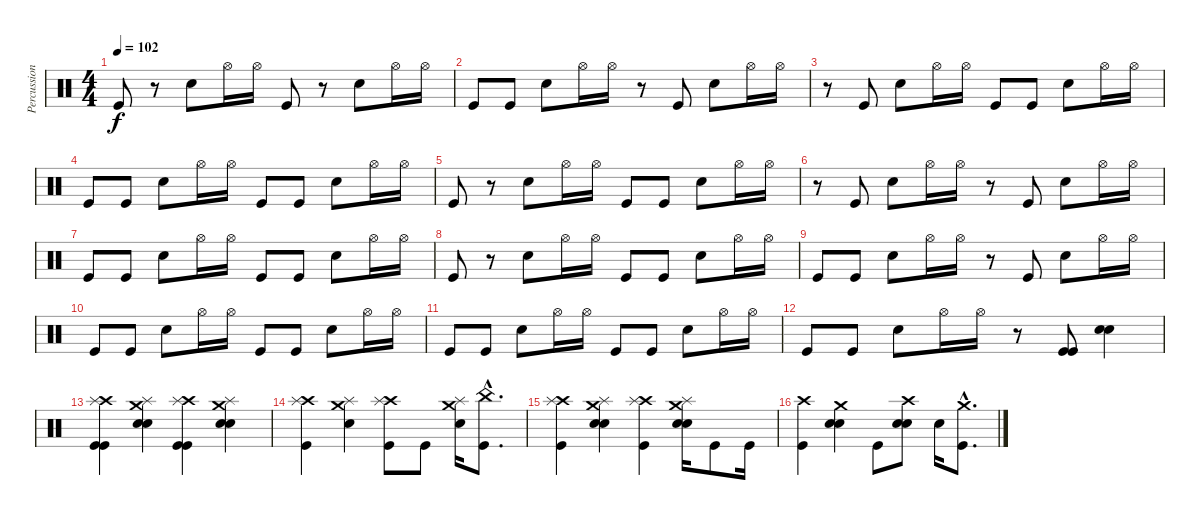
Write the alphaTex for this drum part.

\track ("Percussion (David)" "Percussion") {instrument percussion}
\staff {score}
\articulation defaults
\ts (4 4)
\tempo 102
\clef neutral
\ks c "Kick (hit)".8{dy f}
r.8 "Electric Snare (hit)".8 "Hi-Hat (open)".16 "Hi-Hat (open)".16 "Kick (hit)".8 r.8 "Electric Snare (hit)".8 "Hi-Hat (open)".16 "Hi-Hat (open)".16 |
"Kick (hit)".8 "Kick (hit)".8 "Electric Snare (hit)".8 "Hi-Hat (open)".16 "Hi-Hat (open)".16 r.8 "Kick (hit)".8 "Electric Snare (hit)".8 "Hi-Hat (open)".16 "Hi-Hat (open)".16 |
r.8 "Kick (hit)".8 "Electric Snare (hit)".8 "Hi-Hat (open)".16 "Hi-Hat (open)".16 "Kick (hit)".8 "Kick (hit)".8 "Electric Snare (hit)".8 "Hi-Hat (open)".16 "Hi-Hat (open)".16 |
"Kick (hit)".8 "Kick (hit)".8 "Electric Snare (hit)".8 "Hi-Hat (open)".16 "Hi-Hat (open)".16 "Kick (hit)".8 "Kick (hit)".8 "Electric Snare (hit)".8 "Hi-Hat (open)".16 "Hi-Hat (open)".16 |
"Kick (hit)".8 r.8 "Electric Snare (hit)".8 "Hi-Hat (open)".16 "Hi-Hat (open)".16 "Kick (hit)".8 "Kick (hit)".8 "Electric Snare (hit)".8 "Hi-Hat (open)".16 "Hi-Hat (open)".16 |
r.8 "Kick (hit)".8 "Electric Snare (hit)".8 "Hi-Hat (open)".16 "Hi-Hat (open)".16 r.8 "Kick (hit)".8 "Electric Snare (hit)".8 "Hi-Hat (open)".16 "Hi-Hat (open)".16 |
"Kick (hit)".8 "Kick (hit)".8 "Electric Snare (hit)".8 "Hi-Hat (open)".16 "Hi-Hat (open)".16 "Kick (hit)".8 "Kick (hit)".8 "Electric Snare (hit)".8 "Hi-Hat (open)".16 "Hi-Hat (open)".16 |
"Kick (hit)".8 r.8 "Electric Snare (hit)".8 "Hi-Hat (open)".16 "Hi-Hat (open)".16 "Kick (hit)".8 "Kick (hit)".8 "Electric Snare (hit)".8 "Hi-Hat (open)".16 "Hi-Hat (open)".16 |
"Kick (hit)".8 "Kick (hit)".8 "Electric Snare (hit)".8 "Hi-Hat (open)".16 "Hi-Hat (open)".16 r.8 "Kick (hit)".8 "Electric Snare (hit)".8 "Hi-Hat (open)".16 "Hi-Hat (open)".16 |
"Kick (hit)".8 "Kick (hit)".8 "Electric Snare (hit)".8 "Hi-Hat (open)".16 "Hi-Hat (open)".16 "Kick (hit)".8 "Kick (hit)".8 "Electric Snare (hit)".8 "Hi-Hat (open)".16 "Hi-Hat (open)".16 |
"Kick (hit)".8 "Kick (hit)".8 "Electric Snare (hit)".8 "Hi-Hat (open)".16 "Hi-Hat (open)".16 "Kick (hit)".8 "Kick (hit)".8 "Electric Snare (hit)".8 "Hi-Hat (open)".16 "Hi-Hat (open)".16 |
"Kick (hit)".8 "Kick (hit)".8 "Electric Snare (hit)".8 "Hi-Hat (open)".16 "Hi-Hat (open)".16 r.8 ("Kick (hit)" "Kick (hit)").8 ("Electric Snare (hit)" "Electric Snare (hit)").4 |
("Kick (hit)" "Crash high (hit)" "Splash (hit)" "Kick (hit)").4 ("Electric Snare (hit)" "Crash medium (hit)" "Splash (hit)" "Electric Snare (hit)").4 ("Kick (hit)" "Crash high (hit)" "Splash (hit)" "Kick (hit)").4 ("Electric Snare (hit)" "Crash medium (hit)" "Splash (hit)" "Electric Snare (hit)").4 |
("Kick (hit)" "Crash high (hit)" "Splash (hit)").4 ("Electric Snare (hit)" "Crash medium (hit)" "Splash (hit)").4 ("Kick (hit)" "Crash high (hit)" "Splash (hit)").8 "Kick (hit)".8 ("Electric Snare (hit)" "Crash medium (hit)" "Splash (hit)").16 ("Kick (hit)"{hac} "China (hit)"{hac}).8{d} |
("Kick (hit)" "Crash high (hit)" "Splash (hit)").4 ("Electric Snare (hit)" "Crash medium (hit)" "Splash (hit)" "Electric Snare (hit)").4 ("Kick (hit)" "Crash high (hit)" "Splash (hit)").4 ("Electric Snare (hit)" "Crash medium (hit)" "Splash (hit)" "Electric Snare (hit)").16 "Kick (hit)".8 "Kick (hit)".16 |
("Kick (hit)" "Crash high (hit)").4 ("Electric Snare (hit)" "Crash medium (hit)" "Electric Snare (hit)").4 "Kick (hit)".8 ("Electric Snare (hit)" "Crash high (hit)" "Electric Snare (hit)").8 "Electric Snare (hit)".16 ("Kick (hit)"{hac} "Crash medium (hit)"{hac}).8{d}
